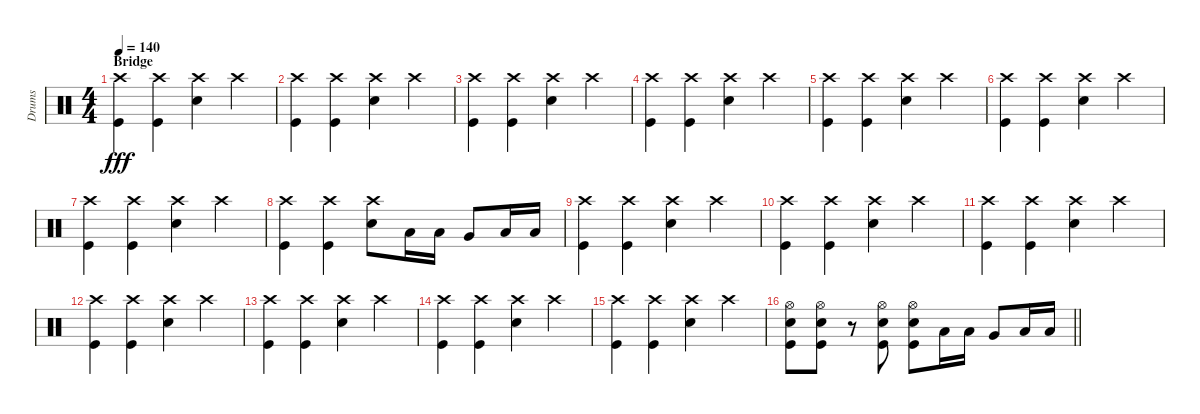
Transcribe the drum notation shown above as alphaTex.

\track ("Drums" "Drums") {instrument percussion}
\staff {score}
\articulation defaults
\ts (4 4)
\section ("" "Bridge")
\tempo 140
\clef neutral
\ks c
("Kick (hit)" "Crash high (hit)").4{dy fff} ("Kick (hit)" "Crash high (hit)").4 ("Snare (hit) 2" "Crash high (hit)").4 "Crash high (hit)".4 |
("Kick (hit)" "Crash high (hit)").4 ("Kick (hit)" "Crash high (hit)").4 ("Snare (hit) 2" "Crash high (hit)").4 "Crash high (hit)".4 |
("Kick (hit)" "Crash high (hit)").4 ("Kick (hit)" "Crash high (hit)").4 ("Snare (hit) 2" "Crash high (hit)").4 "Crash high (hit)".4 |
("Kick (hit)" "Crash high (hit)").4 ("Kick (hit)" "Crash high (hit)").4 ("Snare (hit) 2" "Crash high (hit)").4 "Crash high (hit)".4 |
("Kick (hit)" "Crash high (hit)").4 ("Kick (hit)" "Crash high (hit)").4 ("Snare (hit) 2" "Crash high (hit)").4 "Crash high (hit)".4 |
("Kick (hit)" "Crash high (hit)").4 ("Kick (hit)" "Crash high (hit)").4 ("Snare (hit) 2" "Crash high (hit)").4 "Crash high (hit)".4 |
("Kick (hit)" "Crash high (hit)").4 ("Kick (hit)" "Crash high (hit)").4 ("Snare (hit) 2" "Crash high (hit)").4 "Crash high (hit)".4 |
("Kick (hit)" "Crash high (hit)").4 ("Kick (hit)" "Crash high (hit)").4 ("Snare (hit) 2" "Crash high (hit)").8 "Low Tom (hit)".16 "Low Tom (hit)".16 "Very Low Tom (hit)".8 "Low Floor Tom (hit)".16 "Low Floor Tom (hit)".16 |
("Kick (hit)" "Crash high (hit)").4 ("Kick (hit)" "Crash high (hit)").4 ("Snare (hit) 2" "Crash high (hit)").4 "Crash high (hit)".4 |
("Kick (hit)" "Crash high (hit)").4 ("Kick (hit)" "Crash high (hit)").4 ("Snare (hit) 2" "Crash high (hit)").4 "Crash high (hit)".4 |
("Kick (hit)" "Crash high (hit)").4 ("Kick (hit)" "Crash high (hit)").4 ("Snare (hit) 2" "Crash high (hit)").4 "Crash high (hit)".4 |
("Kick (hit)" "Crash high (hit)").4 ("Kick (hit)" "Crash high (hit)").4 ("Snare (hit) 2" "Crash high (hit)").4 "Crash high (hit)".4 |
("Kick (hit)" "Crash high (hit)").4 ("Kick (hit)" "Crash high (hit)").4 ("Snare (hit) 2" "Crash high (hit)").4 "Crash high (hit)".4 |
("Kick (hit)" "Crash high (hit)").4 ("Kick (hit)" "Crash high (hit)").4 ("Snare (hit) 2" "Crash high (hit)").4 "Crash high (hit)".4 |
("Kick (hit)" "Crash high (hit)").4 ("Kick (hit)" "Crash high (hit)").4 ("Snare (hit) 2" "Crash high (hit)").4 "Crash high (hit)".4 |
\barLineRight lightlight
("Hi-Hat (open)" "Snare (hit) 2" "Kick (hit)").8 ("Hi-Hat (open)" "Snare (hit) 2" "Kick (hit)").8 r.8 ("Hi-Hat (open)" "Snare (hit) 2" "Kick (hit)").8 ("Snare (hit) 2" "Hi-Hat (open)" "Kick (hit)").8 "Low Tom (hit)".16 "Low Tom (hit)".16 "Very Low Tom (hit)".8 "Low Floor Tom (hit)".16 "Low Floor Tom (hit)".16
